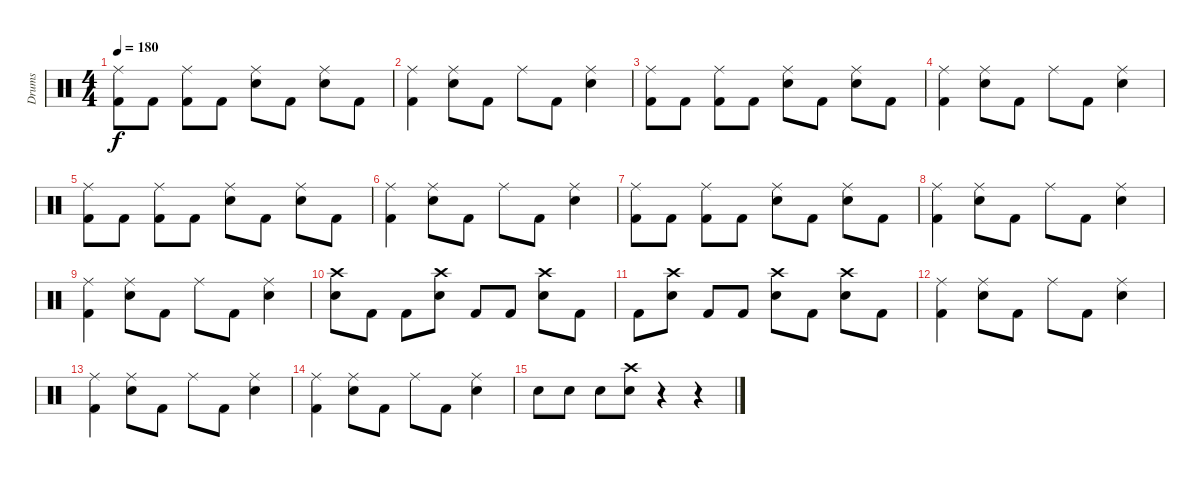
\track ("Drums" "Drums") {instrument percussion}
\staff {score}
\articulation defaults
\ts (4 4)
\tempo 180
\clef neutral
\ks c
("Ride (middle)" "Kick (hit) 2").8{dy f} "Kick (hit) 2".8 ("Ride (middle)" "Kick (hit) 2").8 "Kick (hit) 2".8 ("Ride (middle)" "Electric Snare (hit)").8 "Kick (hit) 2".8 ("Ride (middle)" "Electric Snare (hit)").8 "Kick (hit) 2".8 |
("Ride (middle)" "Kick (hit) 2").4 ("Ride (middle)" "Electric Snare (hit)").8 "Kick (hit) 2".8 "Ride (middle)".8 "Kick (hit) 2".8 ("Ride (middle)" "Electric Snare (hit)").4 |
("Ride (middle)" "Kick (hit) 2").8 "Kick (hit) 2".8 ("Ride (middle)" "Kick (hit) 2").8 "Kick (hit) 2".8 ("Ride (middle)" "Electric Snare (hit)").8 "Kick (hit) 2".8 ("Ride (middle)" "Electric Snare (hit)").8 "Kick (hit) 2".8 |
("Ride (middle)" "Kick (hit) 2").4 ("Ride (middle)" "Electric Snare (hit)").8 "Kick (hit) 2".8 "Ride (middle)".8 "Kick (hit) 2".8 ("Ride (middle)" "Electric Snare (hit)").4 |
("Ride (middle)" "Kick (hit) 2").8 "Kick (hit) 2".8 ("Ride (middle)" "Kick (hit) 2").8 "Kick (hit) 2".8 ("Ride (middle)" "Electric Snare (hit)").8 "Kick (hit) 2".8 ("Ride (middle)" "Electric Snare (hit)").8 "Kick (hit) 2".8 |
("Ride (middle)" "Kick (hit) 2").4 ("Ride (middle)" "Electric Snare (hit)").8 "Kick (hit) 2".8 "Ride (middle)".8 "Kick (hit) 2".8 ("Ride (middle)" "Electric Snare (hit)").4 |
("Ride (middle)" "Kick (hit) 2").8 "Kick (hit) 2".8 ("Ride (middle)" "Kick (hit) 2").8 "Kick (hit) 2".8 ("Ride (middle)" "Electric Snare (hit)").8 "Kick (hit) 2".8 ("Ride (middle)" "Electric Snare (hit)").8 "Kick (hit) 2".8 |
("Ride (middle)" "Kick (hit) 2").4 ("Ride (middle)" "Electric Snare (hit)").8 "Kick (hit) 2".8 "Ride (middle)".8 "Kick (hit) 2".8 ("Ride (middle)" "Electric Snare (hit)").4 |
("Ride (middle)" "Kick (hit) 2").4 ("Ride (middle)" "Electric Snare (hit)").8 "Kick (hit) 2".8 "Ride (middle)".8 "Kick (hit) 2".8 ("Ride (middle)" "Electric Snare (hit)").4 |
("Crash high (hit)" "Electric Snare (hit)").8 "Kick (hit) 2".8 "Kick (hit) 2".8 ("Crash high (hit)" "Electric Snare (hit)").8 "Kick (hit) 2".8 "Kick (hit) 2".8 ("Crash high (hit)" "Electric Snare (hit)").8 "Kick (hit) 2".8 |
"Kick (hit) 2".8 ("Crash high (hit)" "Electric Snare (hit)").8 "Kick (hit) 2".8 "Kick (hit) 2".8 ("Crash high (hit)" "Electric Snare (hit)").8 "Kick (hit) 2".8 ("Crash high (hit)" "Electric Snare (hit)").8 "Kick (hit) 2".8 |
("Ride (middle)" "Kick (hit) 2").4 ("Ride (middle)" "Electric Snare (hit)").8 "Kick (hit) 2".8 "Ride (middle)".8 "Kick (hit) 2".8 ("Ride (middle)" "Electric Snare (hit)").4 |
("Ride (middle)" "Kick (hit) 2").4 ("Ride (middle)" "Electric Snare (hit)").8 "Kick (hit) 2".8 "Ride (middle)".8 "Kick (hit) 2".8 ("Ride (middle)" "Electric Snare (hit)").4 |
("Ride (middle)" "Kick (hit) 2").4 ("Ride (middle)" "Electric Snare (hit)").8 "Kick (hit) 2".8 "Ride (middle)".8 "Kick (hit) 2".8 ("Ride (middle)" "Electric Snare (hit)").4 |
"Electric Snare (hit)".8 "Electric Snare (hit)".8 "Electric Snare (hit)".8 ("Crash high (hit)" "Electric Snare (hit)").8 r.4 r.4
